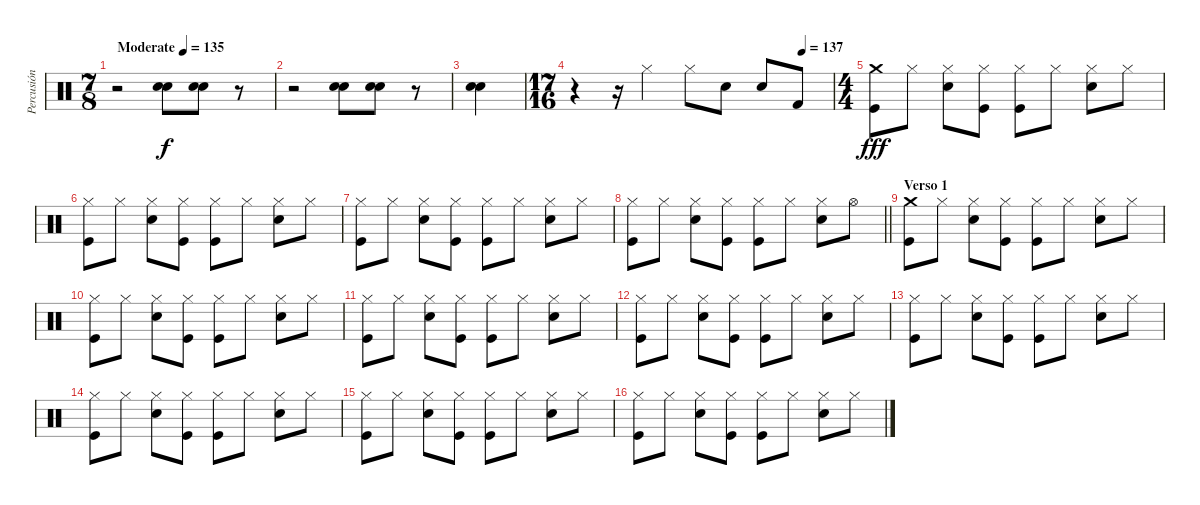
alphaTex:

\track ("Percusión" "Percusión") {instrument percussion}
\staff {score}
\articulation defaults
\ts (7 8)
\tempo (135 "Moderate")
\clef neutral
\ks c
r.2{dy f} ("Electric Snare (hit)" "Electric Snare (hit)").8 ("Electric Snare (hit)" "Electric Snare (hit)").8 r.8 |
r.2 ("Electric Snare (hit)" "Electric Snare (hit)").8 ("Electric Snare (hit)" "Electric Snare (hit)").8 r.8 |
("Electric Snare (hit)" "Electric Snare (hit)").4 |
\ts (17 16)
\tempo (137 0.8823529411764706)
r.4 r.16 "Hi-Hat (closed)".4 "Hi-Hat (closed)".8 "Electric Snare (hit)".8 "Electric Snare (hit)".8 "Kick (hit) 2".8 |
\ts (4 4)
("Crash medium (hit)" "Kick (hit)").8{dy fff} "Hi-Hat (closed)".8 ("Hi-Hat (closed)" "Electric Snare (hit)").8 ("Hi-Hat (closed)" "Kick (hit)").8 ("Hi-Hat (closed)" "Kick (hit)").8 "Hi-Hat (closed)".8 ("Hi-Hat (closed)" "Electric Snare (hit)").8 "Hi-Hat (closed)".8 |
("Hi-Hat (closed)" "Kick (hit)").8 "Hi-Hat (closed)".8 ("Hi-Hat (closed)" "Electric Snare (hit)").8 ("Hi-Hat (closed)" "Kick (hit)").8 ("Hi-Hat (closed)" "Kick (hit)").8 "Hi-Hat (closed)".8 ("Hi-Hat (closed)" "Electric Snare (hit)").8 "Hi-Hat (closed)".8 |
("Hi-Hat (closed)" "Kick (hit)").8 "Hi-Hat (closed)".8 ("Hi-Hat (closed)" "Electric Snare (hit)").8 ("Hi-Hat (closed)" "Kick (hit)").8 ("Hi-Hat (closed)" "Kick (hit)").8 "Hi-Hat (closed)".8 ("Hi-Hat (closed)" "Electric Snare (hit)").8 "Hi-Hat (closed)".8 |
\barLineRight lightlight
("Hi-Hat (closed)" "Kick (hit)").8 "Hi-Hat (closed)".8 ("Hi-Hat (closed)" "Electric Snare (hit)").8 ("Hi-Hat (closed)" "Kick (hit)").8 ("Hi-Hat (closed)" "Kick (hit)").8 "Hi-Hat (closed)".8 ("Hi-Hat (closed)" "Electric Snare (hit)").8 "Hi-Hat (open)".8 |
\section ("" "Verso 1")
("Crash medium (hit)" "Kick (hit)").8 "Hi-Hat (closed)".8 ("Hi-Hat (closed)" "Electric Snare (hit)").8 ("Hi-Hat (closed)" "Kick (hit)").8 ("Hi-Hat (closed)" "Kick (hit)").8 "Hi-Hat (closed)".8 ("Hi-Hat (closed)" "Electric Snare (hit)").8 "Hi-Hat (closed)".8 |
("Hi-Hat (closed)" "Kick (hit)").8 "Hi-Hat (closed)".8 ("Hi-Hat (closed)" "Electric Snare (hit)").8 ("Hi-Hat (closed)" "Kick (hit)").8 ("Hi-Hat (closed)" "Kick (hit)").8 "Hi-Hat (closed)".8 ("Hi-Hat (closed)" "Electric Snare (hit)").8 "Hi-Hat (closed)".8 |
("Hi-Hat (closed)" "Kick (hit)").8 "Hi-Hat (closed)".8 ("Hi-Hat (closed)" "Electric Snare (hit)").8 ("Hi-Hat (closed)" "Kick (hit)").8 ("Hi-Hat (closed)" "Kick (hit)").8 "Hi-Hat (closed)".8 ("Hi-Hat (closed)" "Electric Snare (hit)").8 "Hi-Hat (closed)".8 |
("Hi-Hat (closed)" "Kick (hit)").8 "Hi-Hat (closed)".8 ("Hi-Hat (closed)" "Electric Snare (hit)").8 ("Hi-Hat (closed)" "Kick (hit)").8 ("Hi-Hat (closed)" "Kick (hit)").8 "Hi-Hat (closed)".8 ("Hi-Hat (closed)" "Electric Snare (hit)").8 "Hi-Hat (closed)".8 |
("Hi-Hat (closed)" "Kick (hit)").8 "Hi-Hat (closed)".8 ("Hi-Hat (closed)" "Electric Snare (hit)").8 ("Hi-Hat (closed)" "Kick (hit)").8 ("Hi-Hat (closed)" "Kick (hit)").8 "Hi-Hat (closed)".8 ("Hi-Hat (closed)" "Electric Snare (hit)").8 "Hi-Hat (closed)".8 |
("Hi-Hat (closed)" "Kick (hit)").8 "Hi-Hat (closed)".8 ("Hi-Hat (closed)" "Electric Snare (hit)").8 ("Hi-Hat (closed)" "Kick (hit)").8 ("Hi-Hat (closed)" "Kick (hit)").8 "Hi-Hat (closed)".8 ("Hi-Hat (closed)" "Electric Snare (hit)").8 "Hi-Hat (closed)".8 |
("Hi-Hat (closed)" "Kick (hit)").8 "Hi-Hat (closed)".8 ("Hi-Hat (closed)" "Electric Snare (hit)").8 ("Hi-Hat (closed)" "Kick (hit)").8 ("Hi-Hat (closed)" "Kick (hit)").8 "Hi-Hat (closed)".8 ("Hi-Hat (closed)" "Electric Snare (hit)").8 "Hi-Hat (closed)".8 |
("Hi-Hat (closed)" "Kick (hit)").8 "Hi-Hat (closed)".8 ("Hi-Hat (closed)" "Electric Snare (hit)").8 ("Hi-Hat (closed)" "Kick (hit)").8 ("Hi-Hat (closed)" "Kick (hit)").8 "Hi-Hat (closed)".8 ("Hi-Hat (closed)" "Electric Snare (hit)").8 "Hi-Hat (closed)".8
